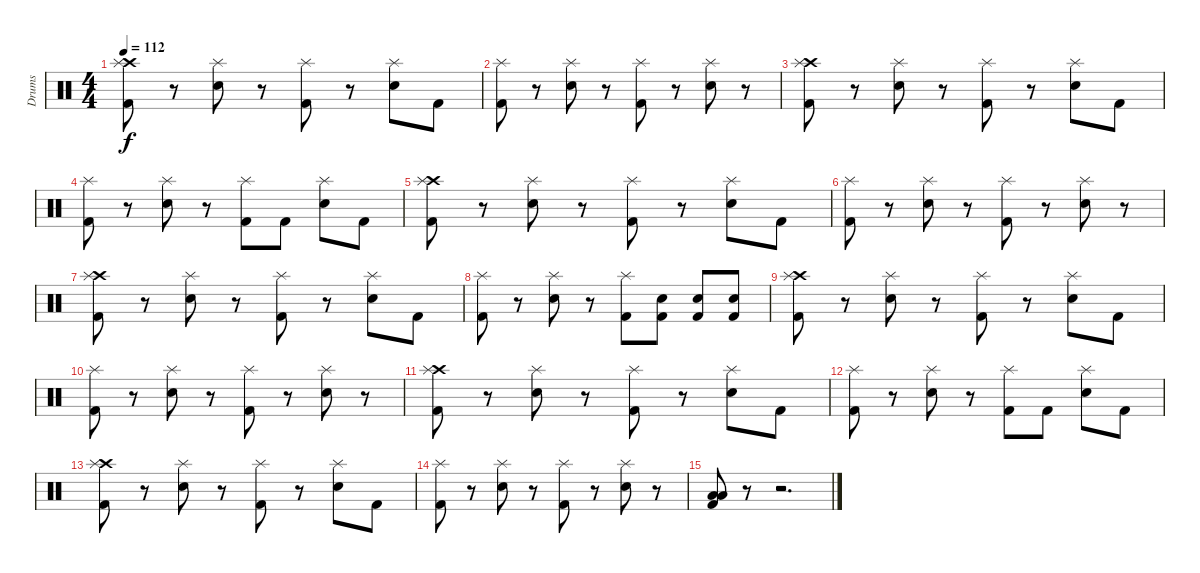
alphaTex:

\track ("Drums" "Drums") {instrument percussion}
\staff {score}
\articulation defaults
\ts (4 4)
\tempo 112
\clef neutral
\ks c
("Crash high (hit)" "Splash (hit)" "Kick (hit) 2").8{dy f} r.8 ("Splash (hit)" "Snare (hit) 2").8 r.8 ("Splash (hit)" "Kick (hit) 2").8 r.8 ("Splash (hit)" "Snare (hit) 2").8 "Kick (hit) 2".8 |
("Splash (hit)" "Kick (hit) 2").8 r.8 ("Splash (hit)" "Snare (hit) 2").8 r.8 ("Splash (hit)" "Kick (hit) 2").8 r.8 ("Splash (hit)" "Snare (hit) 2").8 r.8 |
("Crash high (hit)" "Splash (hit)" "Kick (hit) 2").8 r.8 ("Splash (hit)" "Snare (hit) 2").8 r.8 ("Splash (hit)" "Kick (hit) 2").8 r.8 ("Splash (hit)" "Snare (hit) 2").8 "Kick (hit) 2".8 |
("Splash (hit)" "Kick (hit) 2").8 r.8 ("Splash (hit)" "Snare (hit) 2").8 r.8 ("Splash (hit)" "Kick (hit) 2").8 "Kick (hit) 2".8 ("Splash (hit)" "Snare (hit) 2").8 "Kick (hit) 2".8 |
("Crash high (hit)" "Splash (hit)" "Kick (hit) 2").8 r.8 ("Splash (hit)" "Snare (hit) 2").8 r.8 ("Splash (hit)" "Kick (hit) 2").8 r.8 ("Splash (hit)" "Snare (hit) 2").8 "Kick (hit) 2".8 |
("Splash (hit)" "Kick (hit) 2").8 r.8 ("Splash (hit)" "Snare (hit) 2").8 r.8 ("Splash (hit)" "Kick (hit) 2").8 r.8 ("Splash (hit)" "Snare (hit) 2").8 r.8 |
("Crash high (hit)" "Splash (hit)" "Kick (hit) 2").8 r.8 ("Splash (hit)" "Snare (hit) 2").8 r.8 ("Splash (hit)" "Kick (hit) 2").8 r.8 ("Splash (hit)" "Snare (hit) 2").8 "Kick (hit) 2".8 |
("Splash (hit)" "Kick (hit) 2").8 r.8 ("Splash (hit)" "Snare (hit) 2").8 r.8 ("Splash (hit)" "Kick (hit) 2").8 ("Snare (hit) 2" "Kick (hit) 2").8 ("Snare (hit) 2" "Kick (hit) 2").8 ("Snare (hit) 2" "Kick (hit) 2").8 |
("Crash high (hit)" "Splash (hit)" "Kick (hit) 2").8 r.8 ("Splash (hit)" "Snare (hit) 2").8 r.8 ("Splash (hit)" "Kick (hit) 2").8 r.8 ("Splash (hit)" "Snare (hit) 2").8 "Kick (hit) 2".8 |
("Splash (hit)" "Kick (hit) 2").8 r.8 ("Splash (hit)" "Snare (hit) 2").8 r.8 ("Splash (hit)" "Kick (hit) 2").8 r.8 ("Splash (hit)" "Snare (hit) 2").8 r.8 |
("Crash high (hit)" "Splash (hit)" "Kick (hit) 2").8 r.8 ("Splash (hit)" "Snare (hit) 2").8 r.8 ("Splash (hit)" "Kick (hit) 2").8 r.8 ("Splash (hit)" "Snare (hit) 2").8 "Kick (hit) 2".8 |
("Splash (hit)" "Kick (hit) 2").8 r.8 ("Splash (hit)" "Snare (hit) 2").8 r.8 ("Splash (hit)" "Kick (hit) 2").8 "Kick (hit) 2".8 ("Splash (hit)" "Snare (hit) 2").8 "Kick (hit) 2".8 |
("Crash high (hit)" "Splash (hit)" "Kick (hit) 2").8 r.8 ("Splash (hit)" "Snare (hit) 2").8 r.8 ("Splash (hit)" "Kick (hit) 2").8 r.8 ("Splash (hit)" "Snare (hit) 2").8 "Kick (hit) 2".8 |
("Splash (hit)" "Kick (hit) 2").8 r.8 ("Splash (hit)" "Snare (hit) 2").8 r.8 ("Splash (hit)" "Kick (hit) 2").8 r.8 ("Splash (hit)" "Snare (hit) 2").8 r.8 |
("Low Floor Tom (hit)" "Low Tom (hit)" "Kick (hit) 2").8 r.8 r.2{d}
